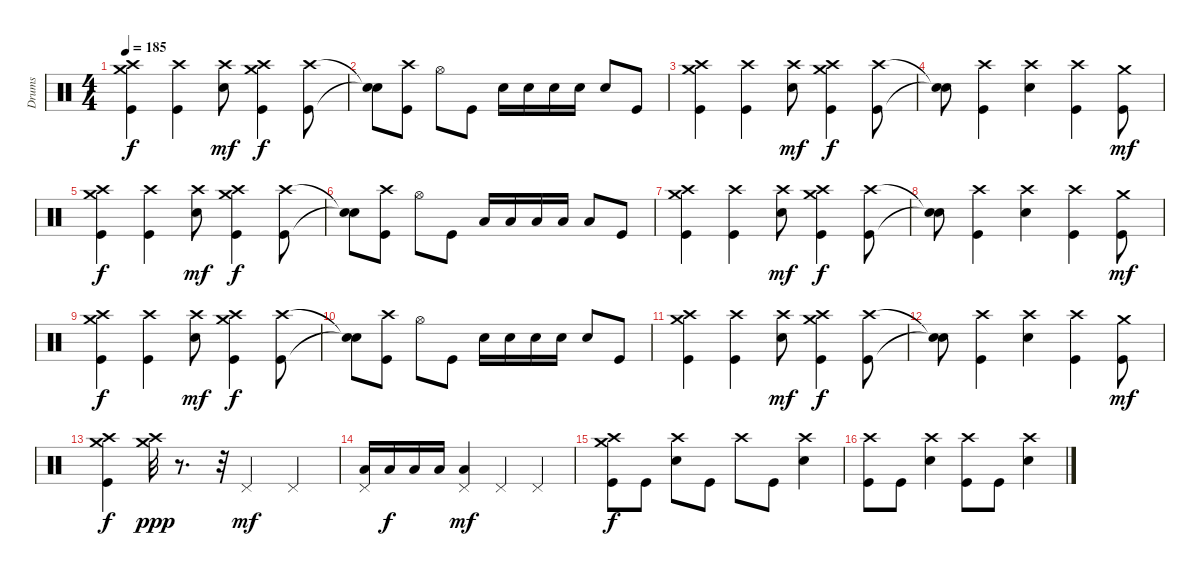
\track ("Drums" "Drums") {instrument percussion}
\staff {score}
\articulation defaults
\ts (4 4)
\tempo 185
\clef neutral
\ks c
("Kick (hit)" "Crash high (hit)" "Crash medium (hit)").4{dy f} ("Kick (hit)" "Crash high (hit)").4 ("Electric Snare (hit)" "Crash high (hit)").8{dy mf} ("Kick (hit)" "Crash high (hit)" "Crash medium (hit)").4{dy f} ("Kick (hit)" "Crash high (hit)").8 |
("Snare (hit)"{t} "Snare (hit)"{t}).8 ("Kick (hit)" "Crash high (hit)").8 "Hi-Hat (open)".8 "Kick (hit)".8 "Electric Snare (hit)".16 "Electric Snare (hit)".16 "Electric Snare (hit)".16 "Electric Snare (hit)".16 "Electric Snare (hit)".8 "Kick (hit)".8 |
("Kick (hit)" "Crash high (hit)" "Crash medium (hit)").4 ("Kick (hit)" "Crash high (hit)").4 ("Electric Snare (hit)" "Crash high (hit)").8{dy mf} ("Kick (hit)" "Crash high (hit)" "Crash medium (hit)").4{dy f} ("Kick (hit)" "Crash high (hit)").8 |
("Snare (hit)"{t} "Snare (hit)"{t}).8 ("Kick (hit)" "Crash high (hit)").4 ("Electric Snare (hit)" "Crash high (hit)").4 ("Kick (hit)" "Crash high (hit)").4 ("Kick (hit)" "Crash medium (hit)").8{dy mf} |
("Kick (hit)" "Crash high (hit)" "Crash medium (hit)").4{dy f} ("Kick (hit)" "Crash high (hit)").4 ("Electric Snare (hit)" "Crash high (hit)").8{dy mf} ("Kick (hit)" "Crash high (hit)" "Crash medium (hit)").4{dy f} ("Kick (hit)" "Crash high (hit)").8 |
("Snare (hit)"{t} "Snare (hit)"{t}).8 ("Kick (hit)" "Crash high (hit)").8 "Hi-Hat (open)".8 "Kick (hit)".8 "Low Floor Tom (hit)".16 "Low Floor Tom (hit)".16 "Low Floor Tom (hit)".16 "Low Floor Tom (hit)".16 "Low Floor Tom (hit)".8 "Kick (hit)".8 |
("Kick (hit)" "Crash high (hit)" "Crash medium (hit)").4 ("Kick (hit)" "Crash high (hit)").4 ("Electric Snare (hit)" "Crash high (hit)").8{dy mf} ("Kick (hit)" "Crash high (hit)" "Crash medium (hit)").4{dy f} ("Kick (hit)" "Crash high (hit)").8 |
("Snare (hit)"{t} "Snare (hit)"{t}).8 ("Kick (hit)" "Crash high (hit)").4 ("Electric Snare (hit)" "Crash high (hit)").4 ("Kick (hit)" "Crash high (hit)").4 ("Kick (hit)" "Crash medium (hit)").8{dy mf} |
("Kick (hit)" "Crash high (hit)" "Crash medium (hit)").4{dy f} ("Kick (hit)" "Crash high (hit)").4 ("Electric Snare (hit)" "Crash high (hit)").8{dy mf} ("Kick (hit)" "Crash high (hit)" "Crash medium (hit)").4{dy f} ("Kick (hit)" "Crash high (hit)").8 |
("Snare (hit)"{t} "Snare (hit)"{t}).8 ("Kick (hit)" "Crash high (hit)").8 "Hi-Hat (open)".8 "Kick (hit)".8 "Electric Snare (hit)".16 "Electric Snare (hit)".16 "Electric Snare (hit)".16 "Electric Snare (hit)".16 "Electric Snare (hit)".8 "Kick (hit)".8 |
("Kick (hit)" "Crash high (hit)" "Crash medium (hit)").4 ("Kick (hit)" "Crash high (hit)").4 ("Electric Snare (hit)" "Crash high (hit)").8{dy mf} ("Kick (hit)" "Crash high (hit)" "Crash medium (hit)").4{dy f} ("Kick (hit)" "Crash high (hit)").8 |
("Snare (hit)"{t} "Snare (hit)"{t}).8 ("Kick (hit)" "Crash high (hit)").4 ("Electric Snare (hit)" "Crash high (hit)").4 ("Kick (hit)" "Crash high (hit)").4 ("Kick (hit)" "Crash medium (hit)").8{dy mf} |
("Kick (hit)" "Crash high (hit)" "Crash medium (hit)").4{dy f} ("Crash high (hit)" "Crash medium (hit)").32{dy ppp} r.8{d} r.32 "Pedal Hi-Hat (hit)".4{dy mf} "Pedal Hi-Hat (hit)".4 |
("Low Floor Tom (hit)" "Pedal Hi-Hat (hit)").16 "Low Floor Tom (hit)".16{dy f} "Low Floor Tom (hit)".16 "Low Floor Tom (hit)".16 ("Low Floor Tom (hit)" "Pedal Hi-Hat (hit)").4{dy mf} "Pedal Hi-Hat (hit)".4 "Pedal Hi-Hat (hit)".4 |
("Kick (hit)" "Crash high (hit)" "Crash medium (hit)").8{dy f} "Kick (hit)".8 ("Electric Snare (hit)" "Crash high (hit)").8 "Kick (hit)".8 "Crash high (hit)".8 "Kick (hit)".8 ("Electric Snare (hit)" "Crash high (hit)").4 |
("Kick (hit)" "Crash high (hit)").8 "Kick (hit)".8 ("Electric Snare (hit)" "Crash high (hit)").4 ("Kick (hit)" "Crash high (hit)").8 "Kick (hit)".8 ("Electric Snare (hit)" "Crash high (hit)").4
